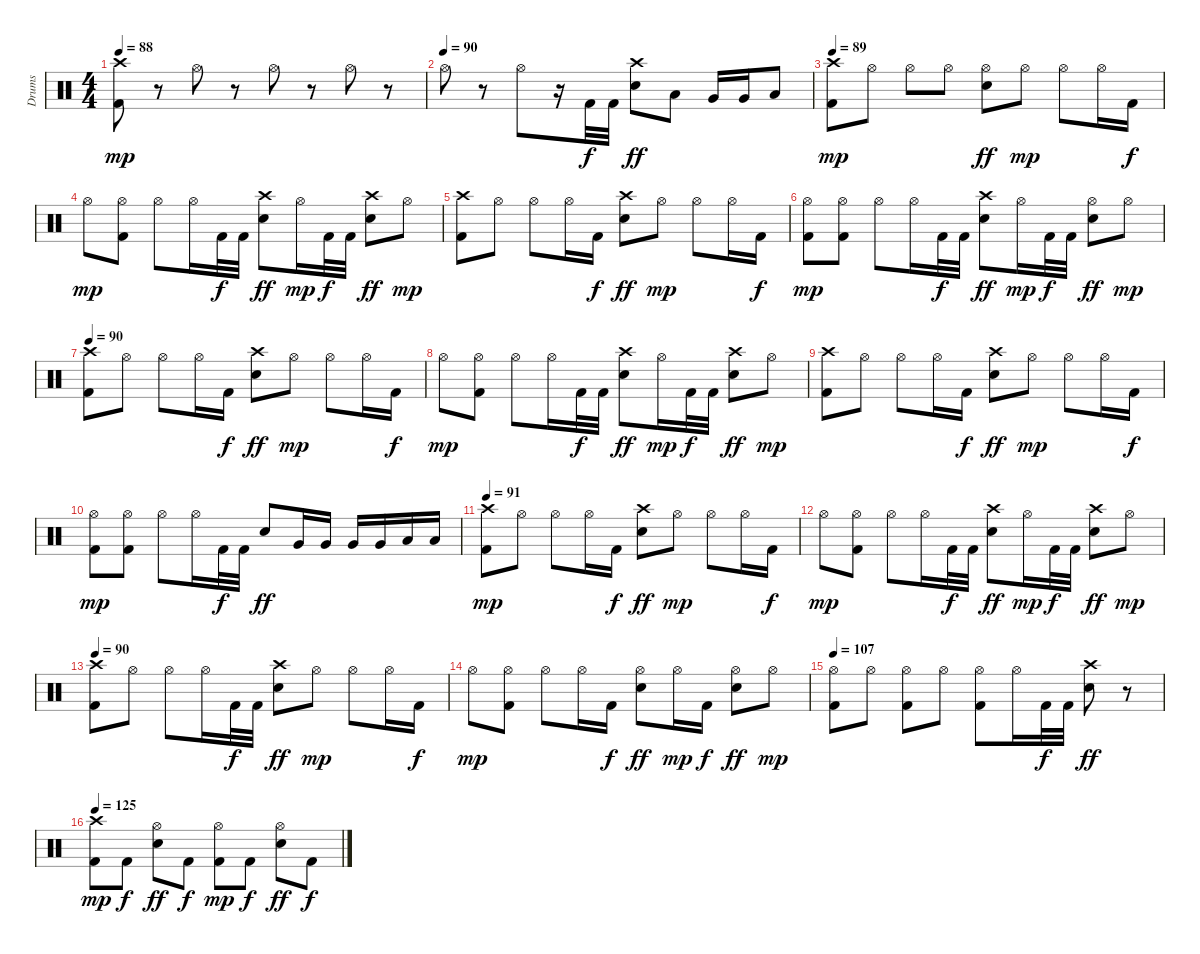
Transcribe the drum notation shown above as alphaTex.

\track ("Drums" "Drums") {instrument percussion}
\staff {score}
\articulation defaults
\ts (4 4)
\tempo 88
\clef neutral
\ks c
("Crash high (hit)" "Kick (hit) 2").8{dy mp} r.8 "Hi-Hat (open)".8 r.8 "Hi-Hat (open)".8 r.8 "Hi-Hat (open)".8 r.8 |
\tempo (90)
"Hi-Hat (open)".8 r.8 "Hi-Hat (open)".8 r.16 "Kick (hit) 2".32{dy f} "Kick (hit) 2".32 ("Crash high (hit)" "Electric Snare (hit)").8{dy ff} "Low Tom (hit)".8 "Very Low Tom (hit)".16 "Very Low Tom (hit)".16 "Low Floor Tom (hit)".8 |
\tempo 89
("Crash high (hit)" "Kick (hit) 2").8{dy mp} "Hi-Hat (open)".8 "Hi-Hat (open)".8 "Hi-Hat (open)".8 ("Hi-Hat (open)" "Electric Snare (hit)").8{dy ff} "Hi-Hat (open)".8{dy mp} "Hi-Hat (open)".8 "Hi-Hat (open)".16 "Kick (hit) 2".16{dy f} |
"Hi-Hat (open)".8{dy mp} ("Hi-Hat (open)" "Kick (hit) 2").8 "Hi-Hat (open)".8 "Hi-Hat (open)".16 "Kick (hit) 2".32{dy f} "Kick (hit) 2".32 ("Crash high (hit)" "Electric Snare (hit)").8{dy ff} "Hi-Hat (open)".16{dy mp} "Kick (hit) 2".32{dy f} "Kick (hit) 2".32 ("Crash high (hit)" "Electric Snare (hit)").8{dy ff} "Hi-Hat (open)".8{dy mp} |
("Crash high (hit)" "Kick (hit) 2").8 "Hi-Hat (open)".8 "Hi-Hat (open)".8 "Hi-Hat (open)".16 "Kick (hit) 2".16{dy f} ("Crash high (hit)" "Electric Snare (hit)").8{dy ff} "Hi-Hat (open)".8{dy mp} "Hi-Hat (open)".8 "Hi-Hat (open)".16 "Kick (hit) 2".16{dy f} |
("Hi-Hat (open)" "Kick (hit) 2").8{dy mp} ("Hi-Hat (open)" "Kick (hit) 2").8 "Hi-Hat (open)".8 "Hi-Hat (open)".16 "Kick (hit) 2".32{dy f} "Kick (hit) 2".32 ("Crash high (hit)" "Electric Snare (hit)").8{dy ff} "Hi-Hat (open)".16{dy mp} "Kick (hit) 2".32{dy f} "Kick (hit) 2".32 ("Hi-Hat (open)" "Electric Snare (hit)").8{dy ff} "Hi-Hat (open)".8{dy mp} |
\tempo 90
("Crash high (hit)" "Kick (hit) 2").8 "Hi-Hat (open)".8 "Hi-Hat (open)".8 "Hi-Hat (open)".16 "Kick (hit) 2".16{dy f} ("Crash high (hit)" "Electric Snare (hit)").8{dy ff} "Hi-Hat (open)".8{dy mp} "Hi-Hat (open)".8 "Hi-Hat (open)".16 "Kick (hit) 2".16{dy f} |
"Hi-Hat (open)".8{dy mp} ("Hi-Hat (open)" "Kick (hit) 2").8 "Hi-Hat (open)".8 "Hi-Hat (open)".16 "Kick (hit) 2".32{dy f} "Kick (hit) 2".32 ("Crash high (hit)" "Electric Snare (hit)").8{dy ff} "Hi-Hat (open)".16{dy mp} "Kick (hit) 2".32{dy f} "Kick (hit) 2".32 ("Crash high (hit)" "Electric Snare (hit)").8{dy ff} "Hi-Hat (open)".8{dy mp} |
("Crash high (hit)" "Kick (hit) 2").8 "Hi-Hat (open)".8 "Hi-Hat (open)".8 "Hi-Hat (open)".16 "Kick (hit) 2".16{dy f} ("Crash high (hit)" "Electric Snare (hit)").8{dy ff} "Hi-Hat (open)".8{dy mp} "Hi-Hat (open)".8 "Hi-Hat (open)".16 "Kick (hit) 2".16{dy f} |
("Hi-Hat (open)" "Kick (hit) 2").8{dy mp} ("Hi-Hat (open)" "Kick (hit) 2").8 "Hi-Hat (open)".8 "Hi-Hat (open)".16 "Kick (hit) 2".32{dy f} "Kick (hit) 2".32 "Electric Snare (hit)".8{dy ff} "Very Low Tom (hit)".16 "Very Low Tom (hit)".16 "Very Low Tom (hit)".16 "Very Low Tom (hit)".16 "Low Floor Tom (hit)".16 "Low Floor Tom (hit)".16 |
\tempo 91
("Crash high (hit)" "Kick (hit) 2").8{dy mp} "Hi-Hat (open)".8 "Hi-Hat (open)".8 "Hi-Hat (open)".16 "Kick (hit) 2".16{dy f} ("Crash high (hit)" "Electric Snare (hit)").8{dy ff} "Hi-Hat (open)".8{dy mp} "Hi-Hat (open)".8 "Hi-Hat (open)".16 "Kick (hit) 2".16{dy f} |
"Hi-Hat (open)".8{dy mp} ("Hi-Hat (open)" "Kick (hit) 2").8 "Hi-Hat (open)".8 "Hi-Hat (open)".16 "Kick (hit) 2".32{dy f} "Kick (hit) 2".32 ("Crash high (hit)" "Electric Snare (hit)").8{dy ff} "Hi-Hat (open)".16{dy mp} "Kick (hit) 2".32{dy f} "Kick (hit) 2".32 ("Crash high (hit)" "Electric Snare (hit)").8{dy ff} "Hi-Hat (open)".8{dy mp} |
\tempo 90
("Crash high (hit)" "Kick (hit) 2").8 "Hi-Hat (open)".8 "Hi-Hat (open)".8 "Hi-Hat (open)".16 "Kick (hit) 2".32{dy f} "Kick (hit) 2".32 ("Crash high (hit)" "Electric Snare (hit)").8{dy ff} "Hi-Hat (open)".8{dy mp} "Hi-Hat (open)".8 "Hi-Hat (open)".16 "Kick (hit) 2".16{dy f} |
"Hi-Hat (open)".8{dy mp} ("Hi-Hat (open)" "Kick (hit) 2").8 "Hi-Hat (open)".8 "Hi-Hat (open)".16 "Kick (hit) 2".16{dy f} ("Hi-Hat (open)" "Electric Snare (hit)").8{dy ff} "Hi-Hat (open)".16{dy mp} "Kick (hit) 2".16{dy f} ("Hi-Hat (open)" "Electric Snare (hit)").8{dy ff} "Hi-Hat (open)".8{dy mp} |
\tempo 107
("Hi-Hat (open)" "Kick (hit) 2").8 "Hi-Hat (open)".8 ("Hi-Hat (open)" "Kick (hit) 2").8 "Hi-Hat (open)".8 ("Hi-Hat (open)" "Kick (hit) 2").8 "Hi-Hat (open)".16 "Kick (hit) 2".32{dy f} "Kick (hit) 2".32 ("Crash high (hit)" "Electric Snare (hit)").8{dy ff} r.8 |
\tempo 125
("Crash high (hit)" "Kick (hit) 2").8{dy mp} "Kick (hit) 2".8{dy f} ("Hi-Hat (open)" "Electric Snare (hit)").8{dy ff} "Kick (hit) 2".8{dy f} ("Hi-Hat (open)" "Kick (hit) 2").8{dy mp} "Kick (hit) 2".8{dy f} ("Hi-Hat (open)" "Electric Snare (hit)").8{dy ff} "Kick (hit) 2".8{dy f}
